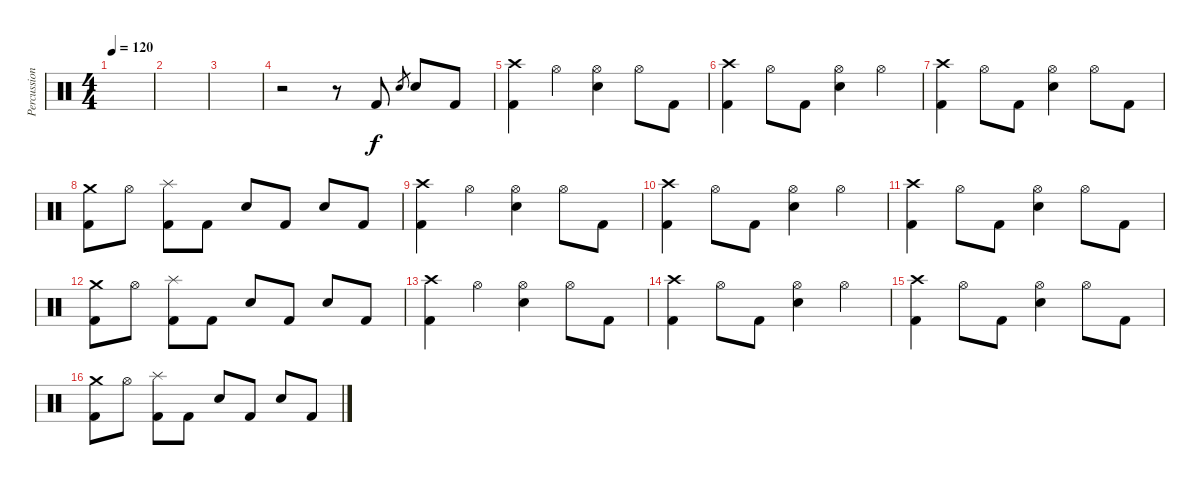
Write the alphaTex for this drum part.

\track ("Percussions" "Percussion") {instrument percussion}
\staff {score}
\articulation defaults
\ts (4 4)
\tempo 120
\clef neutral
\ks c
|
|
|
r.2 r.8 "Kick (hit) 2".8 "Electric Snare (hit)".8{gr} "Electric Snare (hit)".8 "Kick (hit) 2".8 |
("Crash high (hit)" "Kick (hit) 2").4 "Hi-Hat (open)".4 ("Hi-Hat (open)" "Electric Snare (hit)").4 "Hi-Hat (open)".8 "Kick (hit) 2".8 |
("Crash high (hit)" "Kick (hit) 2").4 "Hi-Hat (open)".8 "Kick (hit) 2".8 ("Hi-Hat (open)" "Electric Snare (hit)").4 "Hi-Hat (open)".4 |
("Crash high (hit)" "Kick (hit) 2").4 "Hi-Hat (open)".8 "Kick (hit) 2".8 ("Hi-Hat (open)" "Electric Snare (hit)").4 "Hi-Hat (open)".8 "Kick (hit) 2".8 |
("Crash medium (hit)" "Kick (hit) 2").8 "Hi-Hat (open)".8 ("Splash (hit)" "Kick (hit) 2").8 "Kick (hit) 2".8 "Electric Snare (hit)".8 "Kick (hit) 2".8 "Electric Snare (hit)".8 "Kick (hit) 2".8 |
("Crash high (hit)" "Kick (hit) 2").4 "Hi-Hat (open)".4 ("Hi-Hat (open)" "Electric Snare (hit)").4 "Hi-Hat (open)".8 "Kick (hit) 2".8 |
("Crash high (hit)" "Kick (hit) 2").4 "Hi-Hat (open)".8 "Kick (hit) 2".8 ("Hi-Hat (open)" "Electric Snare (hit)").4 "Hi-Hat (open)".4 |
("Crash high (hit)" "Kick (hit) 2").4 "Hi-Hat (open)".8 "Kick (hit) 2".8 ("Hi-Hat (open)" "Electric Snare (hit)").4 "Hi-Hat (open)".8 "Kick (hit) 2".8 |
("Crash medium (hit)" "Kick (hit) 2").8 "Hi-Hat (open)".8 ("Splash (hit)" "Kick (hit) 2").8 "Kick (hit) 2".8 "Electric Snare (hit)".8 "Kick (hit) 2".8 "Electric Snare (hit)".8 "Kick (hit) 2".8 |
("Crash high (hit)" "Kick (hit) 2").4 "Hi-Hat (open)".4 ("Hi-Hat (open)" "Electric Snare (hit)").4 "Hi-Hat (open)".8 "Kick (hit) 2".8 |
("Crash high (hit)" "Kick (hit) 2").4 "Hi-Hat (open)".8 "Kick (hit) 2".8 ("Hi-Hat (open)" "Electric Snare (hit)").4 "Hi-Hat (open)".4 |
("Crash high (hit)" "Kick (hit) 2").4 "Hi-Hat (open)".8 "Kick (hit) 2".8 ("Hi-Hat (open)" "Electric Snare (hit)").4 "Hi-Hat (open)".8 "Kick (hit) 2".8 |
("Crash medium (hit)" "Kick (hit) 2").8 "Hi-Hat (open)".8 ("Splash (hit)" "Kick (hit) 2").8 "Kick (hit) 2".8 "Electric Snare (hit)".8 "Kick (hit) 2".8 "Electric Snare (hit)".8 "Kick (hit) 2".8
